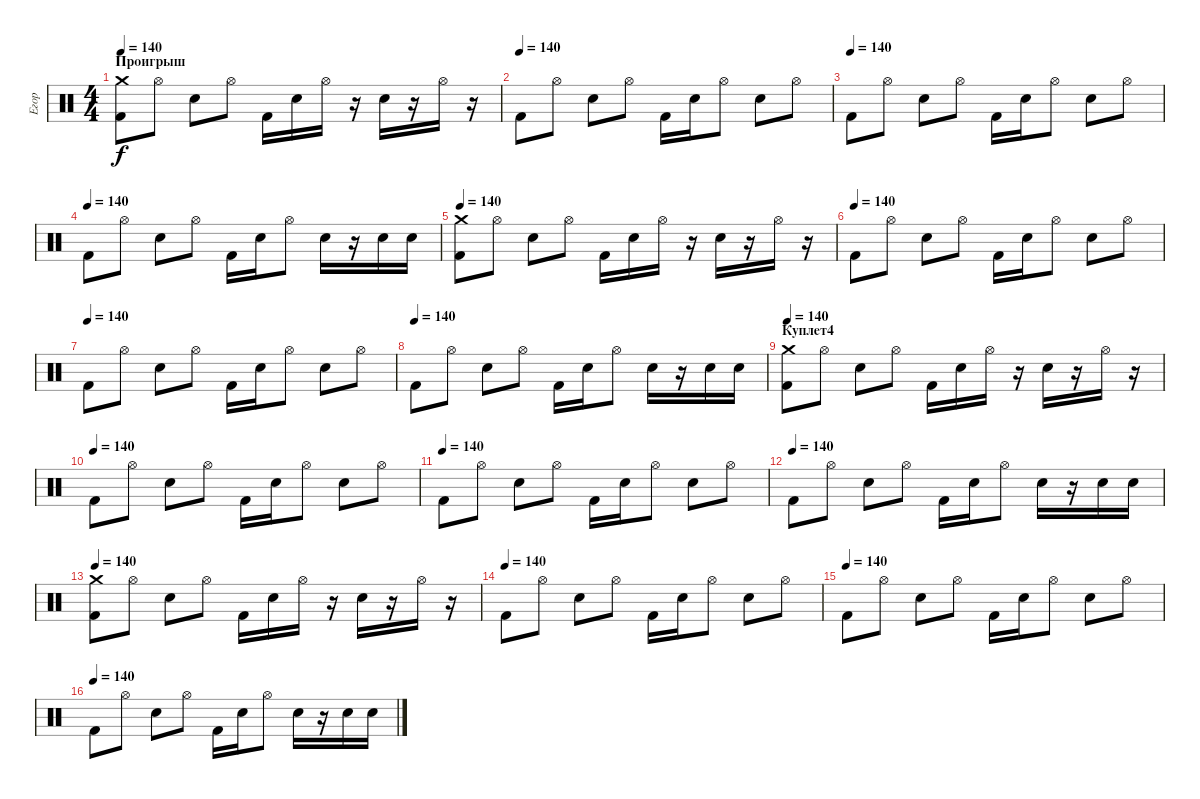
\track ("Егор" "Егор") {instrument percussion}
\staff {score}
\articulation defaults
\ts (4 4)
\section ("" "Проигрыш")
\tempo 140
\clef neutral
\ks c
("Crash medium (hit)" "Kick (hit) 2").8{dy f} "Hi-Hat (open)".8 "Snare (hit) 2".8 "Hi-Hat (open)".8 "Kick (hit) 2".16 "Snare (hit) 2".16 "Hi-Hat (open)".16 r.16 "Snare (hit) 2".16 r.16 "Hi-Hat (open)".16 r.16 |
\tempo (140)
"Kick (hit) 2".8 "Hi-Hat (open)".8 "Snare (hit) 2".8 "Hi-Hat (open)".8 "Kick (hit) 2".16 "Snare (hit) 2".16 "Hi-Hat (open)".8 "Snare (hit) 2".8 "Hi-Hat (open)".8 |
\tempo (140)
"Kick (hit) 2".8 "Hi-Hat (open)".8 "Snare (hit) 2".8 "Hi-Hat (open)".8 "Kick (hit) 2".16 "Snare (hit) 2".16 "Hi-Hat (open)".8 "Snare (hit) 2".8 "Hi-Hat (open)".8 |
\tempo (140)
"Kick (hit) 2".8 "Hi-Hat (open)".8 "Snare (hit) 2".8 "Hi-Hat (open)".8 "Kick (hit) 2".16 "Snare (hit) 2".16 "Hi-Hat (open)".8 "Snare (hit) 2".16 r.16 "Snare (hit) 2".16 "Snare (hit) 2".16 |
\tempo 140
("Crash medium (hit)" "Kick (hit) 2").8 "Hi-Hat (open)".8 "Snare (hit) 2".8 "Hi-Hat (open)".8 "Kick (hit) 2".16 "Snare (hit) 2".16 "Hi-Hat (open)".16 r.16 "Snare (hit) 2".16 r.16 "Hi-Hat (open)".16 r.16 |
\tempo (140)
"Kick (hit) 2".8 "Hi-Hat (open)".8 "Snare (hit) 2".8 "Hi-Hat (open)".8 "Kick (hit) 2".16 "Snare (hit) 2".16 "Hi-Hat (open)".8 "Snare (hit) 2".8 "Hi-Hat (open)".8 |
\tempo (140)
"Kick (hit) 2".8 "Hi-Hat (open)".8 "Snare (hit) 2".8 "Hi-Hat (open)".8 "Kick (hit) 2".16 "Snare (hit) 2".16 "Hi-Hat (open)".8 "Snare (hit) 2".8 "Hi-Hat (open)".8 |
\tempo (140)
"Kick (hit) 2".8 "Hi-Hat (open)".8 "Snare (hit) 2".8 "Hi-Hat (open)".8 "Kick (hit) 2".16 "Snare (hit) 2".16 "Hi-Hat (open)".8 "Snare (hit) 2".16 r.16 "Snare (hit) 2".16 "Snare (hit) 2".16 |
\section ("" "Куплет4")
\tempo 140
("Crash medium (hit)" "Kick (hit) 2").8 "Hi-Hat (open)".8 "Snare (hit) 2".8 "Hi-Hat (open)".8 "Kick (hit) 2".16 "Snare (hit) 2".16 "Hi-Hat (open)".16 r.16 "Snare (hit) 2".16 r.16 "Hi-Hat (open)".16 r.16 |
\tempo (140)
"Kick (hit) 2".8 "Hi-Hat (open)".8 "Snare (hit) 2".8 "Hi-Hat (open)".8 "Kick (hit) 2".16 "Snare (hit) 2".16 "Hi-Hat (open)".8 "Snare (hit) 2".8 "Hi-Hat (open)".8 |
\tempo (140)
"Kick (hit) 2".8 "Hi-Hat (open)".8 "Snare (hit) 2".8 "Hi-Hat (open)".8 "Kick (hit) 2".16 "Snare (hit) 2".16 "Hi-Hat (open)".8 "Snare (hit) 2".8 "Hi-Hat (open)".8 |
\tempo (140)
"Kick (hit) 2".8 "Hi-Hat (open)".8 "Snare (hit) 2".8 "Hi-Hat (open)".8 "Kick (hit) 2".16 "Snare (hit) 2".16 "Hi-Hat (open)".8 "Snare (hit) 2".16 r.16 "Snare (hit) 2".16 "Snare (hit) 2".16 |
\tempo 140
("Crash medium (hit)" "Kick (hit) 2").8 "Hi-Hat (open)".8 "Snare (hit) 2".8 "Hi-Hat (open)".8 "Kick (hit) 2".16 "Snare (hit) 2".16 "Hi-Hat (open)".16 r.16 "Snare (hit) 2".16 r.16 "Hi-Hat (open)".16 r.16 |
\tempo (140)
"Kick (hit) 2".8 "Hi-Hat (open)".8 "Snare (hit) 2".8 "Hi-Hat (open)".8 "Kick (hit) 2".16 "Snare (hit) 2".16 "Hi-Hat (open)".8 "Snare (hit) 2".8 "Hi-Hat (open)".8 |
\tempo (140)
"Kick (hit) 2".8 "Hi-Hat (open)".8 "Snare (hit) 2".8 "Hi-Hat (open)".8 "Kick (hit) 2".16 "Snare (hit) 2".16 "Hi-Hat (open)".8 "Snare (hit) 2".8 "Hi-Hat (open)".8 |
\tempo (140)
"Kick (hit) 2".8 "Hi-Hat (open)".8 "Snare (hit) 2".8 "Hi-Hat (open)".8 "Kick (hit) 2".16 "Snare (hit) 2".16 "Hi-Hat (open)".8 "Snare (hit) 2".16 r.16 "Snare (hit) 2".16 "Snare (hit) 2".16
